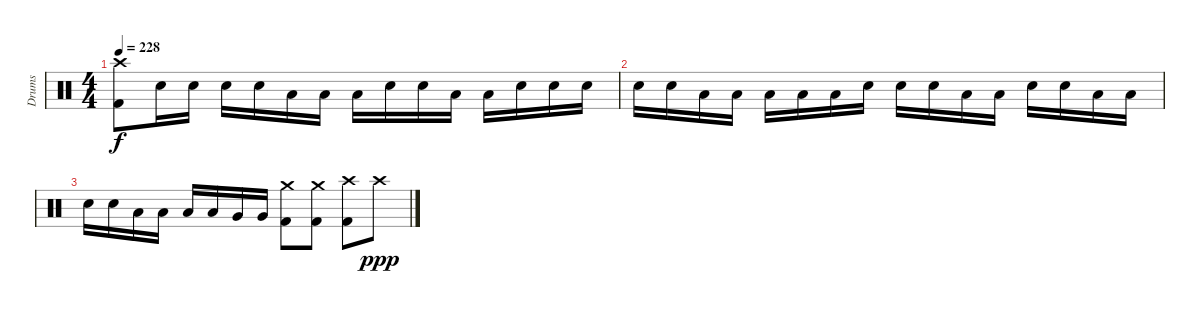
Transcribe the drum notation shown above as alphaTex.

\track ("Drums" "Drums") {instrument percussion}
\staff {score}
\articulation defaults
\ts (4 4)
\tempo 228
\clef neutral
\ks c
("Crash high (hit)" "Kick (hit) 2").8{dy f} "Electric Snare (hit)".16 "Electric Snare (hit)".16 "Electric Snare (hit)".16 "Electric Snare (hit)".16 "Low Tom (hit)".16 "Low Tom (hit)".16 "Low Tom (hit)".16 "Electric Snare (hit)".16 "Electric Snare (hit)".16 "Low Tom (hit)".16 "Low Tom (hit)".16 "Electric Snare (hit)".16 "Electric Snare (hit)".16 "Electric Snare (hit)".16 |
"Electric Snare (hit)".16 "Electric Snare (hit)".16 "Low Tom (hit)".16 "Low Tom (hit)".16 "Low Tom (hit)".16 "Low Tom (hit)".16 "Low Tom (hit)".16 "Electric Snare (hit)".16 "Electric Snare (hit)".16 "Electric Snare (hit)".16 "Low Tom (hit)".16 "Low Tom (hit)".16 "Electric Snare (hit)".16 "Electric Snare (hit)".16 "Low Tom (hit)".16 "Low Tom (hit)".16 |
"Electric Snare (hit)".16 "Electric Snare (hit)".16 "Low Tom (hit)".16 "Low Tom (hit)".16 "Low Tom (hit)".16 "Low Tom (hit)".16 "Very Low Tom (hit)".16 "Very Low Tom (hit)".16 ("Crash medium (hit)" "Kick (hit) 2").8 ("Crash medium (hit)" "Kick (hit) 2").8 ("Crash high (hit)" "Kick (hit) 2").8 "Crash high (hit)".8{dy ppp}
